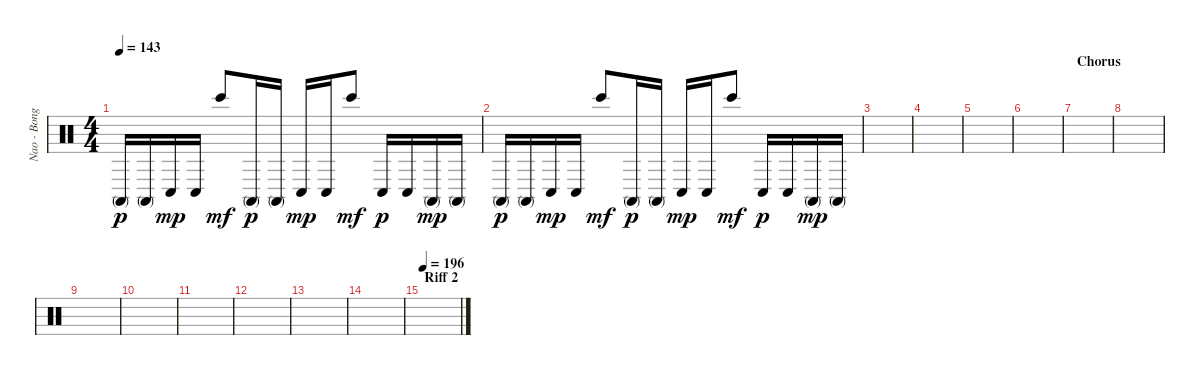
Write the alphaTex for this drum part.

\track ("Nao - Bongos" "Nao - Bong") {instrument percussion}
\staff {score}
\articulation defaults
\ts (4 4)
\tempo 143
\clef neutral
\ks c "Conga high (mute)".16{dy p} "Conga high (mute)".16 "Conga low (hit)".16{dy mp} "Conga low (hit)".16 "Bongo High (hit)".8{dy mf} "Conga high (mute)".16{dy p} "Conga high (mute)".16 "Conga low (hit)".16{dy mp} "Conga low (hit)".16 "Bongo High (hit)".8{dy mf} "Conga low (hit)".16{dy p} "Conga low (hit)".16 "Conga high (mute)".16{dy mp} "Conga high (mute)".16
|
"Conga high (mute)".16{dy p} "Conga high (mute)".16 "Conga low (hit)".16{dy mp} "Conga low (hit)".16 "Bongo High (hit)".8{dy mf} "Conga high (mute)".16{dy p} "Conga high (mute)".16 "Conga low (hit)".16{dy mp} "Conga low (hit)".16 "Bongo High (hit)".8{dy mf} "Conga low (hit)".16{dy p} "Conga low (hit)".16 "Conga high (mute)".16{dy mp} "Conga high (mute)".16 |
|
|
|
|
\section ("" "Chorus")
|
|
|
|
|
|
|
|
\section ("" "Riff 2")
\tempo 196
